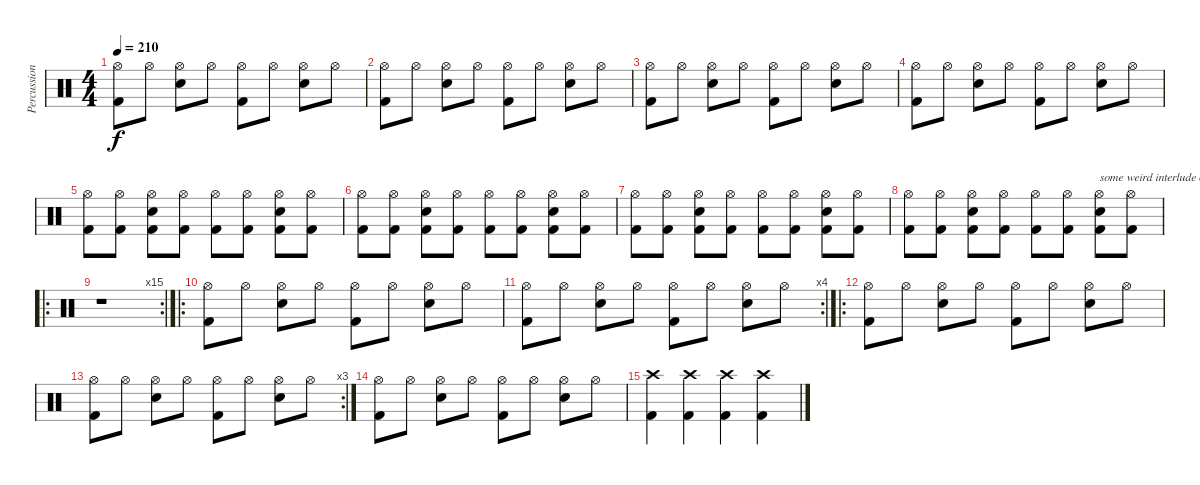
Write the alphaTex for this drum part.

\track ("Percussion" "Percussion") {instrument percussion}
\staff {score}
\articulation defaults
\ts (4 4)
\tempo 210
\clef neutral
\ks c
("Hi-Hat (open)" "Kick (hit) 2").8{dy f} "Hi-Hat (open)".8 ("Hi-Hat (open)" "Snare (hit) 2").8 "Hi-Hat (open)".8 ("Hi-Hat (open)" "Kick (hit) 2").8 "Hi-Hat (open)".8 ("Hi-Hat (open)" "Snare (hit) 2").8 "Hi-Hat (open)".8 |
("Hi-Hat (open)" "Kick (hit) 2").8 "Hi-Hat (open)".8 ("Hi-Hat (open)" "Snare (hit) 2").8 "Hi-Hat (open)".8 ("Hi-Hat (open)" "Kick (hit) 2").8 "Hi-Hat (open)".8 ("Hi-Hat (open)" "Snare (hit) 2").8 "Hi-Hat (open)".8 |
("Hi-Hat (open)" "Kick (hit) 2").8 "Hi-Hat (open)".8 ("Hi-Hat (open)" "Snare (hit) 2").8 "Hi-Hat (open)".8 ("Hi-Hat (open)" "Kick (hit) 2").8 "Hi-Hat (open)".8 ("Hi-Hat (open)" "Snare (hit) 2").8 "Hi-Hat (open)".8 |
("Hi-Hat (open)" "Kick (hit) 2").8 "Hi-Hat (open)".8 ("Hi-Hat (open)" "Snare (hit) 2").8 "Hi-Hat (open)".8 ("Hi-Hat (open)" "Kick (hit) 2").8 "Hi-Hat (open)".8 ("Hi-Hat (open)" "Snare (hit) 2").8 "Hi-Hat (open)".8 |
("Hi-Hat (open)" "Kick (hit) 2").8 ("Hi-Hat (open)" "Kick (hit) 2").8 ("Hi-Hat (open)" "Snare (hit) 2" "Kick (hit) 2").8 ("Hi-Hat (open)" "Kick (hit) 2").8 ("Hi-Hat (open)" "Kick (hit) 2").8 ("Hi-Hat (open)" "Kick (hit) 2").8 ("Hi-Hat (open)" "Snare (hit) 2" "Kick (hit) 2").8 ("Hi-Hat (open)" "Kick (hit) 2").8 |
("Hi-Hat (open)" "Kick (hit) 2").8 ("Hi-Hat (open)" "Kick (hit) 2").8 ("Hi-Hat (open)" "Snare (hit) 2" "Kick (hit) 2").8 ("Hi-Hat (open)" "Kick (hit) 2").8 ("Hi-Hat (open)" "Kick (hit) 2").8 ("Hi-Hat (open)" "Kick (hit) 2").8 ("Hi-Hat (open)" "Snare (hit) 2" "Kick (hit) 2").8 ("Hi-Hat (open)" "Kick (hit) 2").8 |
("Hi-Hat (open)" "Kick (hit) 2").8 ("Hi-Hat (open)" "Kick (hit) 2").8 ("Hi-Hat (open)" "Snare (hit) 2" "Kick (hit) 2").8 ("Hi-Hat (open)" "Kick (hit) 2").8 ("Hi-Hat (open)" "Kick (hit) 2").8 ("Hi-Hat (open)" "Kick (hit) 2").8 ("Hi-Hat (open)" "Snare (hit) 2" "Kick (hit) 2").8 ("Hi-Hat (open)" "Kick (hit) 2").8 |
("Hi-Hat (open)" "Kick (hit) 2").8 ("Hi-Hat (open)" "Kick (hit) 2").8 ("Hi-Hat (open)" "Snare (hit) 2" "Kick (hit) 2").8 ("Hi-Hat (open)" "Kick (hit) 2").8 ("Hi-Hat (open)" "Kick (hit) 2").8 ("Hi-Hat (open)" "Kick (hit) 2").8 ("Hi-Hat (open)" "Snare (hit) 2" "Kick (hit) 2").8{txt "some weird interlude of a guy breathing..."} ("Hi-Hat (open)" "Kick (hit) 2").8 |
\ro
\rc 15
r.1 |
\ro
("Hi-Hat (open)" "Kick (hit) 2").8 "Hi-Hat (open)".8 ("Hi-Hat (open)" "Snare (hit) 2").8 "Hi-Hat (open)".8 ("Hi-Hat (open)" "Kick (hit) 2").8 "Hi-Hat (open)".8 ("Hi-Hat (open)" "Snare (hit) 2").8 "Hi-Hat (open)".8 |
\rc 4
("Hi-Hat (open)" "Kick (hit) 2").8 "Hi-Hat (open)".8 ("Hi-Hat (open)" "Snare (hit) 2").8 "Hi-Hat (open)".8 ("Hi-Hat (open)" "Kick (hit) 2").8 "Hi-Hat (open)".8 ("Hi-Hat (open)" "Snare (hit) 2").8 "Hi-Hat (open)".8 |
\ro
("Hi-Hat (open)" "Kick (hit) 2").8 "Hi-Hat (open)".8 ("Hi-Hat (open)" "Snare (hit) 2").8 "Hi-Hat (open)".8 ("Hi-Hat (open)" "Kick (hit) 2").8 "Hi-Hat (open)".8 ("Hi-Hat (open)" "Snare (hit) 2").8 "Hi-Hat (open)".8 |
\rc 3
("Hi-Hat (open)" "Kick (hit) 2").8 "Hi-Hat (open)".8 ("Hi-Hat (open)" "Snare (hit) 2").8 "Hi-Hat (open)".8 ("Hi-Hat (open)" "Kick (hit) 2").8 "Hi-Hat (open)".8 ("Hi-Hat (open)" "Snare (hit) 2").8 "Hi-Hat (open)".8 |
("Hi-Hat (open)" "Kick (hit) 2").8 "Hi-Hat (open)".8 ("Hi-Hat (open)" "Snare (hit) 2").8 "Hi-Hat (open)".8 ("Hi-Hat (open)" "Kick (hit) 2").8 "Hi-Hat (open)".8 ("Hi-Hat (open)" "Snare (hit) 2").8 "Hi-Hat (open)".8 |
("Crash high (hit)" "Kick (hit) 2").4 ("Crash high (hit)" "Kick (hit) 2").4 ("Crash high (hit)" "Kick (hit) 2").4 ("Crash high (hit)" "Kick (hit) 2").4
